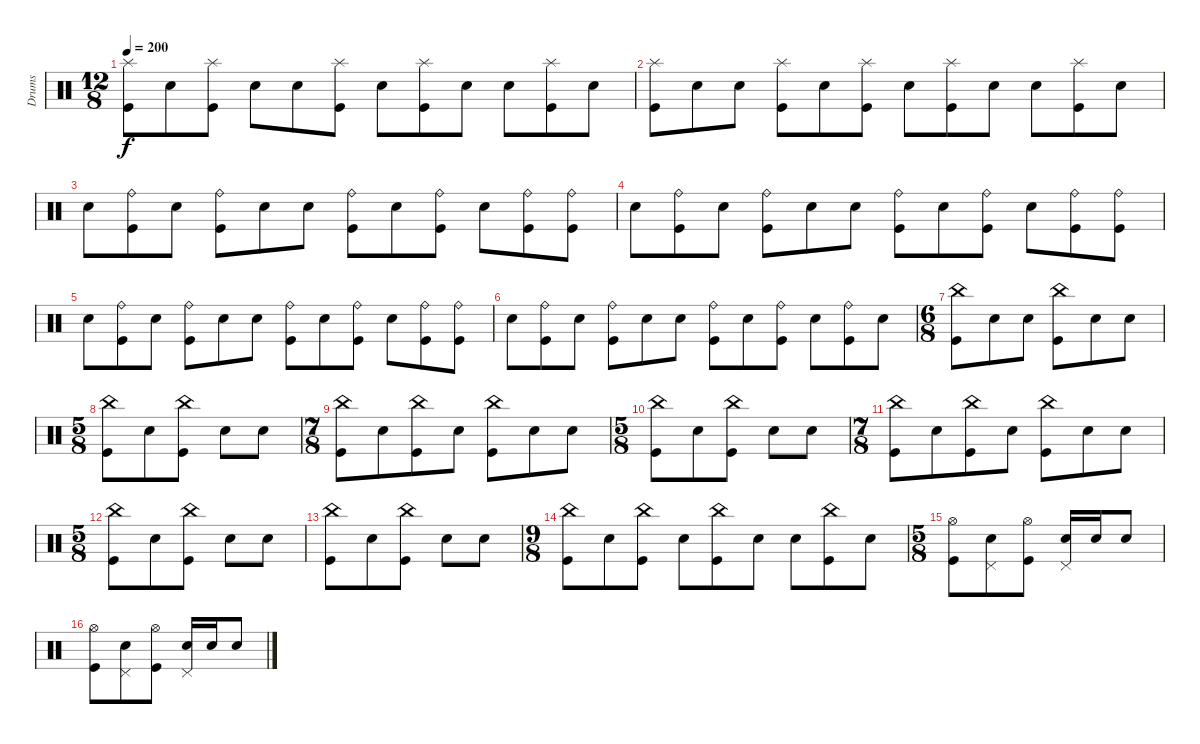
\track ("Drums" "Drums") {instrument percussion}
\staff {score}
\articulation defaults
\ts (12 8)
\tempo 200
\clef neutral
\ks c
("Splash (hit)" "Kick (hit)").8{dy f} "Electric Snare (hit)".8 ("Splash (hit)" "Kick (hit)").8 "Electric Snare (hit)".8 "Electric Snare (hit)".8 ("Splash (hit)" "Kick (hit)").8 "Electric Snare (hit)".8 ("Splash (hit)" "Kick (hit)").8 "Electric Snare (hit)".8 "Electric Snare (hit)".8 ("Splash (hit)" "Kick (hit)").8 "Electric Snare (hit)".8 |
("Splash (hit)" "Kick (hit)").8 "Electric Snare (hit)".8 "Electric Snare (hit)".8 ("Splash (hit)" "Kick (hit)").8 "Electric Snare (hit)".8 ("Splash (hit)" "Kick (hit)").8 "Electric Snare (hit)".8 ("Splash (hit)" "Kick (hit)").8 "Electric Snare (hit)".8 "Electric Snare (hit)".8 ("Splash (hit)" "Kick (hit)").8 "Electric Snare (hit)".8 |
"Electric Snare (hit)".8 ("Ride (bell)" "Kick (hit)").8 "Electric Snare (hit)".8 ("Ride (bell)" "Kick (hit)").8 "Electric Snare (hit)".8 "Electric Snare (hit)".8 ("Ride (bell)" "Kick (hit)").8 "Electric Snare (hit)".8 ("Ride (bell)" "Kick (hit)").8 "Electric Snare (hit)".8 ("Ride (bell)" "Kick (hit)").8 ("Ride (bell)" "Kick (hit)").8 |
"Electric Snare (hit)".8 ("Ride (bell)" "Kick (hit)").8 "Electric Snare (hit)".8 ("Ride (bell)" "Kick (hit)").8 "Electric Snare (hit)".8 "Electric Snare (hit)".8 ("Ride (bell)" "Kick (hit)").8 "Electric Snare (hit)".8 ("Ride (bell)" "Kick (hit)").8 "Electric Snare (hit)".8 ("Ride (bell)" "Kick (hit)").8 ("Ride (bell)" "Kick (hit)").8 |
"Electric Snare (hit)".8 ("Ride (bell)" "Kick (hit)").8 "Electric Snare (hit)".8 ("Ride (bell)" "Kick (hit)").8 "Electric Snare (hit)".8 "Electric Snare (hit)".8 ("Ride (bell)" "Kick (hit)").8 "Electric Snare (hit)".8 ("Ride (bell)" "Kick (hit)").8 "Electric Snare (hit)".8 ("Ride (bell)" "Kick (hit)").8 ("Ride (bell)" "Kick (hit)").8 |
"Electric Snare (hit)".8 ("Ride (bell)" "Kick (hit)").8 "Electric Snare (hit)".8 ("Ride (bell)" "Kick (hit)").8 "Electric Snare (hit)".8 "Electric Snare (hit)".8 ("Ride (bell)" "Kick (hit)").8 "Electric Snare (hit)".8 ("Ride (bell)" "Kick (hit)").8 "Electric Snare (hit)".8 ("Ride (bell)" "Kick (hit)").8 "Electric Snare (hit)".8 |
\ts (6 8)
("China (hit)" "Kick (hit)").8 "Electric Snare (hit)".8 "Electric Snare (hit)".8 ("China (hit)" "Kick (hit)").8 "Electric Snare (hit)".8 "Electric Snare (hit)".8 |
\ts (5 8)
("Kick (hit)" "China (hit)").8 "Electric Snare (hit)".8 ("Kick (hit)" "China (hit)").8 "Electric Snare (hit)".8 "Electric Snare (hit)".8 |
\ts (7 8)
("China (hit)" "Kick (hit)").8 "Electric Snare (hit)".8 ("China (hit)" "Kick (hit)").8 "Electric Snare (hit)".8 ("China (hit)" "Kick (hit)").8 "Electric Snare (hit)".8 "Electric Snare (hit)".8 |
\ts (5 8)
("Kick (hit)" "China (hit)").8 "Electric Snare (hit)".8 ("Kick (hit)" "China (hit)").8 "Electric Snare (hit)".8 "Electric Snare (hit)".8 |
\ts (7 8)
("China (hit)" "Kick (hit)").8 "Electric Snare (hit)".8 ("China (hit)" "Kick (hit)").8 "Electric Snare (hit)".8 ("China (hit)" "Kick (hit)").8 "Electric Snare (hit)".8 "Electric Snare (hit)".8 |
\ts (5 8)
("Kick (hit)" "China (hit)").8 "Electric Snare (hit)".8 ("Kick (hit)" "China (hit)").8 "Electric Snare (hit)".8 "Electric Snare (hit)".8 |
("Kick (hit)" "China (hit)").8 "Electric Snare (hit)".8 ("Kick (hit)" "China (hit)").8 "Electric Snare (hit)".8 "Electric Snare (hit)".8 |
\ts (9 8)
("China (hit)" "Kick (hit)").8 "Electric Snare (hit)".8 ("China (hit)" "Kick (hit)").8 "Electric Snare (hit)".8 ("China (hit)" "Kick (hit)").8 "Electric Snare (hit)".8 "Electric Snare (hit)".8 ("China (hit)" "Kick (hit)").8 "Electric Snare (hit)".8 |
\ts (5 8)
("Kick (hit)" "Hi-Hat (open)").8 ("Snare (hit) 2" "Pedal Hi-Hat (hit)").8 ("Kick (hit)" "Hi-Hat (open)").8 ("Snare (hit) 2" "Pedal Hi-Hat (hit)").16 "Snare (hit) 2".16 "Snare (hit) 2".8 |
("Kick (hit)" "Hi-Hat (open)").8 ("Snare (hit) 2" "Pedal Hi-Hat (hit)").8 ("Kick (hit)" "Hi-Hat (open)").8 ("Snare (hit) 2" "Pedal Hi-Hat (hit)").16 "Snare (hit) 2".16 "Snare (hit) 2".8
